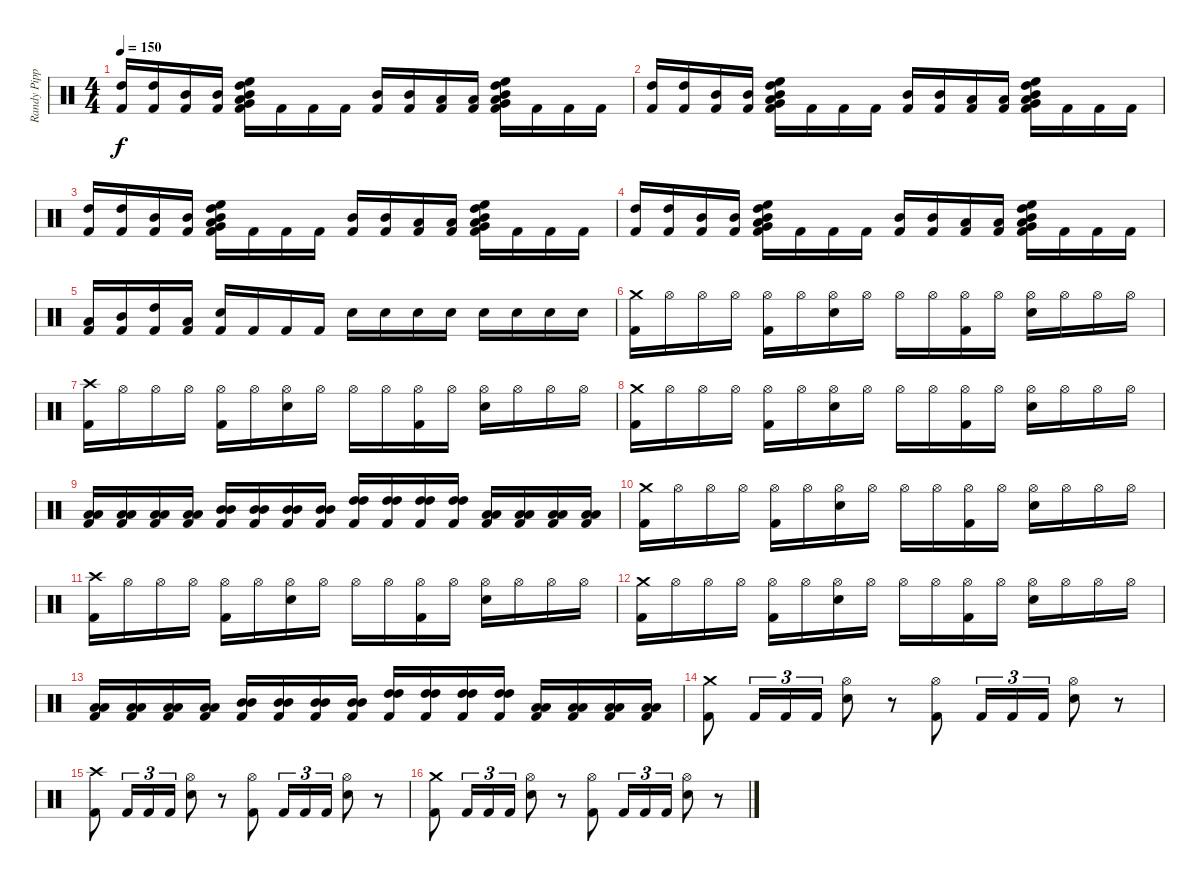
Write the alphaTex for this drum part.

\track ("Randy Pipper" "Randy Pipp") {instrument percussion}
\staff {score}
\articulation defaults
\ts (4 4)
\tempo 150
\clef neutral
\ks c
("Kick (hit) 2" "High Tom (hit)").16{dy f} ("Kick (hit) 2" "High Tom (hit)").16 ("Kick (hit) 2" "Mid Tom (hit)").16 ("Kick (hit) 2" "Mid Tom (hit)").16 ("Kick (hit) 2" "Low Tom (hit)" "Very Low Tom (hit)" "Mid Tom (hit)" "High Tom (hit)" "High Floor Tom (hit)").16 "Kick (hit) 2".16 "Kick (hit) 2".16 "Kick (hit) 2".16 ("Kick (hit) 2" "Mid Tom (hit)").16 ("Kick (hit) 2" "Mid Tom (hit)").16 ("Kick (hit) 2" "Low Tom (hit)").16 ("Kick (hit) 2" "Low Tom (hit)").16 ("Kick (hit) 2" "Low Tom (hit)" "Very Low Tom (hit)" "Mid Tom (hit)" "High Tom (hit)" "High Floor Tom (hit)").16 "Kick (hit) 2".16 "Kick (hit) 2".16 "Kick (hit) 2".16 |
("Kick (hit) 2" "High Tom (hit)").16 ("Kick (hit) 2" "High Tom (hit)").16 ("Kick (hit) 2" "Mid Tom (hit)").16 ("Kick (hit) 2" "Mid Tom (hit)").16 ("Kick (hit) 2" "Low Tom (hit)" "Very Low Tom (hit)" "Mid Tom (hit)" "High Tom (hit)" "High Floor Tom (hit)").16 "Kick (hit) 2".16 "Kick (hit) 2".16 "Kick (hit) 2".16 ("Kick (hit) 2" "Mid Tom (hit)").16 ("Kick (hit) 2" "Mid Tom (hit)").16 ("Kick (hit) 2" "Low Tom (hit)").16 ("Kick (hit) 2" "Low Tom (hit)").16 ("Kick (hit) 2" "Low Tom (hit)" "Very Low Tom (hit)" "Mid Tom (hit)" "High Tom (hit)" "High Floor Tom (hit)").16 "Kick (hit) 2".16 "Kick (hit) 2".16 "Kick (hit) 2".16 |
("Kick (hit) 2" "High Tom (hit)").16 ("Kick (hit) 2" "High Tom (hit)").16 ("Kick (hit) 2" "Mid Tom (hit)").16 ("Kick (hit) 2" "Mid Tom (hit)").16 ("Kick (hit) 2" "Low Tom (hit)" "Very Low Tom (hit)" "Mid Tom (hit)" "High Tom (hit)" "High Floor Tom (hit)").16 "Kick (hit) 2".16 "Kick (hit) 2".16 "Kick (hit) 2".16 ("Kick (hit) 2" "Mid Tom (hit)").16 ("Kick (hit) 2" "Mid Tom (hit)").16 ("Kick (hit) 2" "Low Tom (hit)").16 ("Kick (hit) 2" "Low Tom (hit)").16 ("Kick (hit) 2" "Low Tom (hit)" "Very Low Tom (hit)" "Mid Tom (hit)" "High Tom (hit)" "High Floor Tom (hit)").16 "Kick (hit) 2".16 "Kick (hit) 2".16 "Kick (hit) 2".16 |
("Kick (hit) 2" "High Tom (hit)").16 ("Kick (hit) 2" "High Tom (hit)").16 ("Kick (hit) 2" "Mid Tom (hit)").16 ("Kick (hit) 2" "Mid Tom (hit)").16 ("Kick (hit) 2" "Low Tom (hit)" "Very Low Tom (hit)" "Mid Tom (hit)" "High Tom (hit)" "High Floor Tom (hit)").16 "Kick (hit) 2".16 "Kick (hit) 2".16 "Kick (hit) 2".16 ("Kick (hit) 2" "Mid Tom (hit)").16 ("Kick (hit) 2" "Mid Tom (hit)").16 ("Kick (hit) 2" "Low Tom (hit)").16 ("Kick (hit) 2" "Low Tom (hit)").16 ("Kick (hit) 2" "Low Tom (hit)" "Very Low Tom (hit)" "Mid Tom (hit)" "High Tom (hit)" "High Floor Tom (hit)").16 "Kick (hit) 2".16 "Kick (hit) 2".16 "Kick (hit) 2".16 |
("Kick (hit) 2" "Low Tom (hit)").16 ("Kick (hit) 2" "Mid Tom (hit)").16 ("Kick (hit) 2" "High Tom (hit)").16 ("Kick (hit) 2" "Low Tom (hit)").16 ("Kick (hit) 2" "Snare (hit) 2").16 "Kick (hit) 2".16 "Kick (hit) 2".16 "Kick (hit) 2".16 "Snare (hit) 2".16 "Snare (hit) 2".16 "Snare (hit) 2".16 "Snare (hit) 2".16 "Snare (hit) 2".16 "Snare (hit) 2".16 "Snare (hit) 2".16 "Snare (hit) 2".16 |
("Crash medium (hit)" "Kick (hit) 2").16 "Hi-Hat (open)".16 "Hi-Hat (open)".16 "Hi-Hat (open)".16 ("Hi-Hat (open)" "Kick (hit) 2").16 "Hi-Hat (open)".16 ("Hi-Hat (open)" "Snare (hit) 2").16 "Hi-Hat (open)".16 "Hi-Hat (open)".16 "Hi-Hat (open)".16 ("Hi-Hat (open)" "Kick (hit) 2").16 "Hi-Hat (open)".16 ("Hi-Hat (open)" "Snare (hit) 2").16 "Hi-Hat (open)".16 "Hi-Hat (open)".16 "Hi-Hat (open)".16 |
("Crash high (hit)" "Kick (hit) 2").16 "Hi-Hat (open)".16 "Hi-Hat (open)".16 "Hi-Hat (open)".16 ("Hi-Hat (open)" "Kick (hit) 2").16 "Hi-Hat (open)".16 ("Hi-Hat (open)" "Snare (hit) 2").16 "Hi-Hat (open)".16 "Hi-Hat (open)".16 "Hi-Hat (open)".16 ("Hi-Hat (open)" "Kick (hit) 2").16 "Hi-Hat (open)".16 ("Hi-Hat (open)" "Snare (hit) 2").16 "Hi-Hat (open)".16 "Hi-Hat (open)".16 "Hi-Hat (open)".16 |
("Crash medium (hit)" "Kick (hit) 2").16 "Hi-Hat (open)".16 "Hi-Hat (open)".16 "Hi-Hat (open)".16 ("Hi-Hat (open)" "Kick (hit) 2").16 "Hi-Hat (open)".16 ("Hi-Hat (open)" "Snare (hit) 2").16 "Hi-Hat (open)".16 "Hi-Hat (open)".16 "Hi-Hat (open)".16 ("Hi-Hat (open)" "Kick (hit) 2").16 "Hi-Hat (open)".16 ("Hi-Hat (open)" "Snare (hit) 2").16 "Hi-Hat (open)".16 "Hi-Hat (open)".16 "Hi-Hat (open)".16 |
("Low Tom (hit)" "Low Tom (hit)" "Kick (hit) 2").16 ("Low Tom (hit)" "Low Tom (hit)" "Kick (hit) 2").16 ("Low Tom (hit)" "Low Tom (hit)" "Kick (hit) 2").16 ("Low Tom (hit)" "Low Tom (hit)" "Kick (hit) 2").16 ("Mid Tom (hit)" "Mid Tom (hit)" "Kick (hit) 2").16 ("Mid Tom (hit)" "Mid Tom (hit)" "Kick (hit) 2").16 ("Mid Tom (hit)" "Mid Tom (hit)" "Kick (hit) 2").16 ("Mid Tom (hit)" "Mid Tom (hit)" "Kick (hit) 2").16 ("High Tom (hit)" "High Tom (hit)" "Kick (hit) 2").16 ("High Tom (hit)" "High Tom (hit)" "Kick (hit) 2").16 ("High Tom (hit)" "High Tom (hit)" "Kick (hit) 2").16 ("High Tom (hit)" "High Tom (hit)" "Kick (hit) 2").16 ("Low Tom (hit)" "Low Tom (hit)" "Kick (hit) 2").16 ("Low Tom (hit)" "Low Tom (hit)" "Kick (hit) 2").16 ("Low Tom (hit)" "Low Tom (hit)" "Kick (hit) 2").16 ("Low Tom (hit)" "Low Tom (hit)" "Kick (hit) 2").16 |
("Crash medium (hit)" "Kick (hit) 2").16 "Hi-Hat (open)".16 "Hi-Hat (open)".16 "Hi-Hat (open)".16 ("Hi-Hat (open)" "Kick (hit) 2").16 "Hi-Hat (open)".16 ("Hi-Hat (open)" "Snare (hit) 2").16 "Hi-Hat (open)".16 "Hi-Hat (open)".16 "Hi-Hat (open)".16 ("Hi-Hat (open)" "Kick (hit) 2").16 "Hi-Hat (open)".16 ("Hi-Hat (open)" "Snare (hit) 2").16 "Hi-Hat (open)".16 "Hi-Hat (open)".16 "Hi-Hat (open)".16 |
("Crash high (hit)" "Kick (hit) 2").16 "Hi-Hat (open)".16 "Hi-Hat (open)".16 "Hi-Hat (open)".16 ("Hi-Hat (open)" "Kick (hit) 2").16 "Hi-Hat (open)".16 ("Hi-Hat (open)" "Snare (hit) 2").16 "Hi-Hat (open)".16 "Hi-Hat (open)".16 "Hi-Hat (open)".16 ("Hi-Hat (open)" "Kick (hit) 2").16 "Hi-Hat (open)".16 ("Hi-Hat (open)" "Snare (hit) 2").16 "Hi-Hat (open)".16 "Hi-Hat (open)".16 "Hi-Hat (open)".16 |
("Crash medium (hit)" "Kick (hit) 2").16 "Hi-Hat (open)".16 "Hi-Hat (open)".16 "Hi-Hat (open)".16 ("Hi-Hat (open)" "Kick (hit) 2").16 "Hi-Hat (open)".16 ("Hi-Hat (open)" "Snare (hit) 2").16 "Hi-Hat (open)".16 "Hi-Hat (open)".16 "Hi-Hat (open)".16 ("Hi-Hat (open)" "Kick (hit) 2").16 "Hi-Hat (open)".16 ("Hi-Hat (open)" "Snare (hit) 2").16 "Hi-Hat (open)".16 "Hi-Hat (open)".16 "Hi-Hat (open)".16 |
("Low Tom (hit)" "Low Tom (hit)" "Kick (hit) 2").16 ("Low Tom (hit)" "Low Tom (hit)" "Kick (hit) 2").16 ("Low Tom (hit)" "Low Tom (hit)" "Kick (hit) 2").16 ("Low Tom (hit)" "Low Tom (hit)" "Kick (hit) 2").16 ("Mid Tom (hit)" "Mid Tom (hit)" "Kick (hit) 2").16 ("Mid Tom (hit)" "Mid Tom (hit)" "Kick (hit) 2").16 ("Mid Tom (hit)" "Mid Tom (hit)" "Kick (hit) 2").16 ("Mid Tom (hit)" "Mid Tom (hit)" "Kick (hit) 2").16 ("High Tom (hit)" "High Tom (hit)" "Kick (hit) 2").16 ("High Tom (hit)" "High Tom (hit)" "Kick (hit) 2").16 ("High Tom (hit)" "High Tom (hit)" "Kick (hit) 2").16 ("High Tom (hit)" "High Tom (hit)" "Kick (hit) 2").16 ("Low Tom (hit)" "Low Tom (hit)" "Kick (hit) 2").16 ("Low Tom (hit)" "Low Tom (hit)" "Kick (hit) 2").16 ("Low Tom (hit)" "Low Tom (hit)" "Kick (hit) 2").16 ("Low Tom (hit)" "Low Tom (hit)" "Kick (hit) 2").16 |
("Kick (hit) 2" "Crash medium (hit)").8 "Kick (hit) 2".16{tu (3 2)} "Kick (hit) 2".16{tu (3 2)} "Kick (hit) 2".16{tu (3 2)} ("Snare (hit) 2" "Hi-Hat (open)").8 r.8 ("Kick (hit) 2" "Hi-Hat (open)").8 "Kick (hit) 2".16{tu (3 2)} "Kick (hit) 2".16{tu (3 2)} "Kick (hit) 2".16{tu (3 2)} ("Snare (hit) 2" "Hi-Hat (open)").8 r.8 |
("Kick (hit) 2" "Crash high (hit)").8 "Kick (hit) 2".16{tu (3 2)} "Kick (hit) 2".16{tu (3 2)} "Kick (hit) 2".16{tu (3 2)} ("Snare (hit) 2" "Hi-Hat (open)").8 r.8 ("Kick (hit) 2" "Hi-Hat (open)").8 "Kick (hit) 2".16{tu (3 2)} "Kick (hit) 2".16{tu (3 2)} "Kick (hit) 2".16{tu (3 2)} ("Snare (hit) 2" "Hi-Hat (open)").8 r.8 |
("Kick (hit) 2" "Crash medium (hit)").8 "Kick (hit) 2".16{tu (3 2)} "Kick (hit) 2".16{tu (3 2)} "Kick (hit) 2".16{tu (3 2)} ("Snare (hit) 2" "Hi-Hat (open)").8 r.8 ("Kick (hit) 2" "Hi-Hat (open)").8 "Kick (hit) 2".16{tu (3 2)} "Kick (hit) 2".16{tu (3 2)} "Kick (hit) 2".16{tu (3 2)} ("Snare (hit) 2" "Hi-Hat (open)").8 r.8
